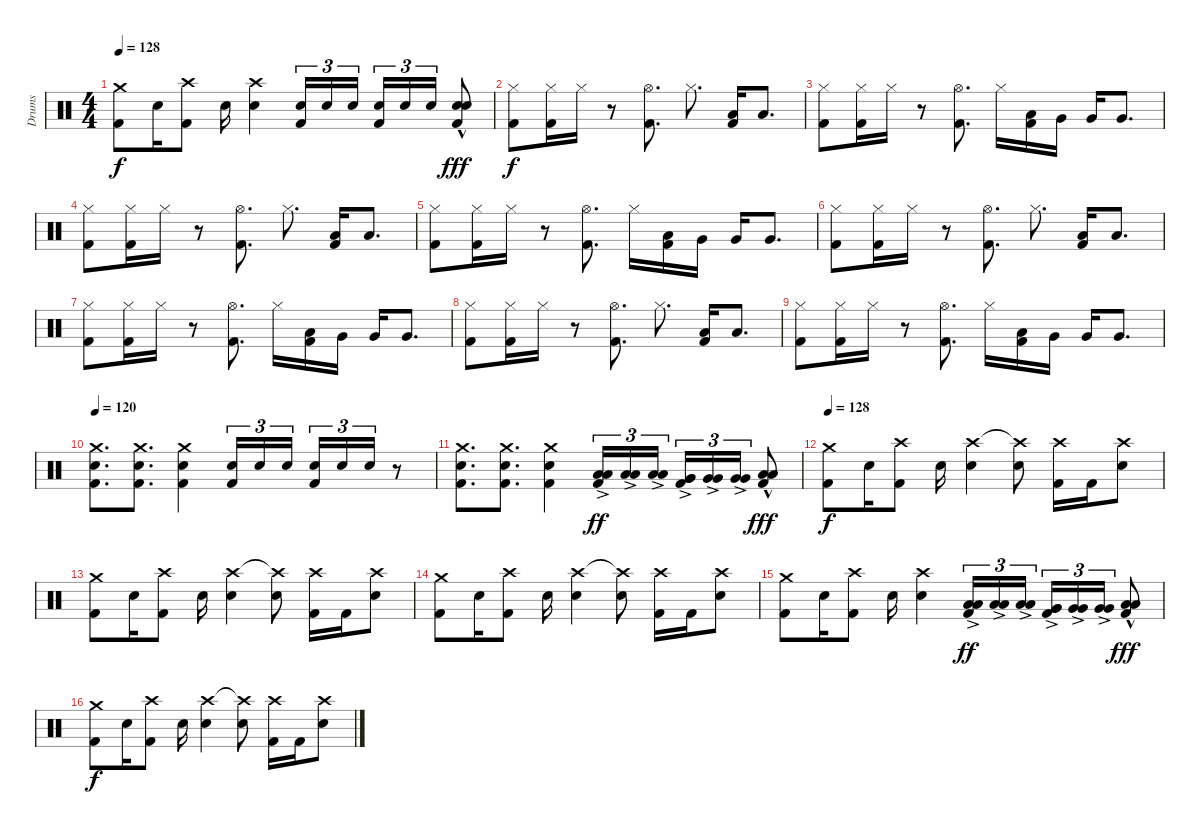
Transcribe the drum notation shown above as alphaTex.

\track ("Drums" "Drums") {instrument percussion}
\staff {score}
\articulation defaults
\ts (4 4)
\tempo 128
\clef neutral
\ks c
("Crash medium (hit)" "Kick (hit) 2").8{dy f} "Snare (hit) 2".16 ("Crash high (hit)" "Kick (hit) 2").8 "Snare (hit) 2".16 ("Crash high (hit)" "Snare (hit) 2").4 ("Snare (hit) 2" "Kick (hit) 2").16{tu (3 2)} "Snare (hit) 2".16{tu (3 2)} "Snare (hit) 2".16{tu (3 2)} ("Snare (hit) 2" "Kick (hit) 2").16{tu (3 2)} "Snare (hit) 2".16{tu (3 2)} "Snare (hit) 2".16{tu (3 2)} ("Snare (hit) 2"{hac} "Snare (hit) 2" "Kick (hit) 2").8{dy fff} |
("Hi-Hat (closed)" "Kick (hit) 2").8{dy f} ("Hi-Hat (closed)" "Kick (hit) 2").16 "Hi-Hat (closed)".16 r.8 ("Hi-Hat (open)" "Kick (hit) 2").8{d} "Hi-Hat (closed)".8{d} ("Low Tom (hit)" "Kick (hit) 2").16 "Low Tom (hit)".8{d} |
("Hi-Hat (closed)" "Kick (hit) 2").8 ("Hi-Hat (closed)" "Kick (hit) 2").16 "Hi-Hat (closed)".16 r.8 ("Hi-Hat (open)" "Kick (hit) 2").8{d} "Hi-Hat (closed)".16 ("Low Tom (hit)" "Kick (hit) 2").16 "Very Low Tom (hit)".16 "Very Low Tom (hit)".16 "Very Low Tom (hit)".8{d} |
("Hi-Hat (closed)" "Kick (hit) 2").8 ("Hi-Hat (closed)" "Kick (hit) 2").16 "Hi-Hat (closed)".16 r.8 ("Hi-Hat (open)" "Kick (hit) 2").8{d} "Hi-Hat (closed)".8{d} ("Low Tom (hit)" "Kick (hit) 2").16 "Low Tom (hit)".8{d} |
("Hi-Hat (closed)" "Kick (hit) 2").8 ("Hi-Hat (closed)" "Kick (hit) 2").16 "Hi-Hat (closed)".16 r.8 ("Hi-Hat (open)" "Kick (hit) 2").8{d} "Hi-Hat (closed)".16 ("Low Tom (hit)" "Kick (hit) 2").16 "Very Low Tom (hit)".16 "Very Low Tom (hit)".16 "Very Low Tom (hit)".8{d} |
("Hi-Hat (closed)" "Kick (hit) 2").8 ("Hi-Hat (closed)" "Kick (hit) 2").16 "Hi-Hat (closed)".16 r.8 ("Hi-Hat (open)" "Kick (hit) 2").8{d} "Hi-Hat (closed)".8{d} ("Low Tom (hit)" "Kick (hit) 2").16 "Low Tom (hit)".8{d} |
("Hi-Hat (closed)" "Kick (hit) 2").8 ("Hi-Hat (closed)" "Kick (hit) 2").16 "Hi-Hat (closed)".16 r.8 ("Hi-Hat (open)" "Kick (hit) 2").8{d} "Hi-Hat (closed)".16 ("Low Tom (hit)" "Kick (hit) 2").16 "Very Low Tom (hit)".16 "Very Low Tom (hit)".16 "Very Low Tom (hit)".8{d} |
("Hi-Hat (closed)" "Kick (hit) 2").8 ("Hi-Hat (closed)" "Kick (hit) 2").16 "Hi-Hat (closed)".16 r.8 ("Hi-Hat (open)" "Kick (hit) 2").8{d} "Hi-Hat (closed)".8{d} ("Low Tom (hit)" "Kick (hit) 2").16 "Low Tom (hit)".8{d} |
("Hi-Hat (closed)" "Kick (hit) 2").8 ("Hi-Hat (closed)" "Kick (hit) 2").16 "Hi-Hat (closed)".16 r.8 ("Hi-Hat (open)" "Kick (hit) 2").8{d} "Hi-Hat (closed)".16 ("Low Tom (hit)" "Kick (hit) 2").16 "Very Low Tom (hit)".16 "Very Low Tom (hit)".16 "Very Low Tom (hit)".8{d} |
\tempo 120
("Crash medium (hit)" "Snare (hit) 2" "Kick (hit) 2").8{d} ("Crash medium (hit)" "Snare (hit) 2" "Kick (hit) 2").8{d} ("Crash medium (hit)" "Snare (hit) 2" "Kick (hit) 2").4 ("Snare (hit) 2" "Kick (hit) 2").16{tu (3 2)} "Snare (hit) 2".16{tu (3 2)} "Snare (hit) 2".16{tu (3 2)} ("Snare (hit) 2" "Kick (hit) 2").16{tu (3 2)} "Snare (hit) 2".16{tu (3 2)} "Snare (hit) 2".16{tu (3 2)} r.8 |
("Crash medium (hit)" "Snare (hit) 2" "Kick (hit) 2").8{d} ("Crash medium (hit)" "Snare (hit) 2" "Kick (hit) 2").8{d} ("Crash medium (hit)" "Snare (hit) 2" "Kick (hit) 2").4 ("Low Floor Tom (hit)"{ac} "Low Floor Tom (hit)" "Kick (hit) 2").16{tu (3 2) dy ff} ("Low Floor Tom (hit)"{ac} "Low Floor Tom (hit)").16{tu (3 2)} ("Low Floor Tom (hit)"{ac} "Low Floor Tom (hit)").16{tu (3 2)} ("Very Low Tom (hit)"{ac} "Very Low Tom (hit)" "Kick (hit) 2").16{tu (3 2)} ("Very Low Tom (hit)"{ac} "Very Low Tom (hit)").16{tu (3 2)} ("Very Low Tom (hit)"{ac} "Very Low Tom (hit)").16{tu (3 2)} ("Low Tom (hit)"{hac} "Low Tom (hit)" "Kick (hit) 2").8{dy fff} |
\tempo 128
("Crash medium (hit)" "Kick (hit) 2").8{dy f} "Snare (hit) 2".16 ("Crash high (hit)" "Kick (hit) 2").8 "Snare (hit) 2".16 ("Crash high (hit)" "Snare (hit) 2").4 ("Crash high (hit)"{t} "Snare (hit) 2").8 ("Crash high (hit)" "Kick (hit) 2").16 "Kick (hit) 2".16 ("Crash high (hit)" "Snare (hit) 2").8 |
("Crash medium (hit)" "Kick (hit) 2").8 "Snare (hit) 2".16 ("Crash high (hit)" "Kick (hit) 2").8 "Snare (hit) 2".16 ("Crash high (hit)" "Snare (hit) 2").4 ("Crash high (hit)"{t} "Snare (hit) 2").8 ("Crash high (hit)" "Kick (hit) 2").16 "Kick (hit) 2".16 ("Crash high (hit)" "Snare (hit) 2").8 |
("Crash medium (hit)" "Kick (hit) 2").8 "Snare (hit) 2".16 ("Crash high (hit)" "Kick (hit) 2").8 "Snare (hit) 2".16 ("Crash high (hit)" "Snare (hit) 2").4 ("Crash high (hit)"{t} "Snare (hit) 2").8 ("Crash high (hit)" "Kick (hit) 2").16 "Kick (hit) 2".16 ("Crash high (hit)" "Snare (hit) 2").8 |
("Crash medium (hit)" "Kick (hit) 2").8 "Snare (hit) 2".16 ("Crash high (hit)" "Kick (hit) 2").8 "Snare (hit) 2".16 ("Crash high (hit)" "Snare (hit) 2").4 ("Low Floor Tom (hit)"{ac} "Low Floor Tom (hit)" "Kick (hit) 2").16{tu (3 2) dy ff} ("Low Floor Tom (hit)"{ac} "Low Floor Tom (hit)").16{tu (3 2)} ("Low Floor Tom (hit)"{ac} "Low Floor Tom (hit)").16{tu (3 2)} ("Very Low Tom (hit)"{ac} "Very Low Tom (hit)" "Kick (hit) 2").16{tu (3 2)} ("Very Low Tom (hit)"{ac} "Very Low Tom (hit)").16{tu (3 2)} ("Very Low Tom (hit)"{ac} "Very Low Tom (hit)").16{tu (3 2)} ("Low Tom (hit)"{hac} "Low Tom (hit)" "Kick (hit) 2").8{dy fff} |
("Crash medium (hit)" "Kick (hit) 2").8{dy f} "Snare (hit) 2".16 ("Crash high (hit)" "Kick (hit) 2").8 "Snare (hit) 2".16 ("Crash high (hit)" "Snare (hit) 2").4 ("Crash high (hit)"{t} "Snare (hit) 2").8 ("Crash high (hit)" "Kick (hit) 2").16 "Kick (hit) 2".16 ("Crash high (hit)" "Snare (hit) 2").8
